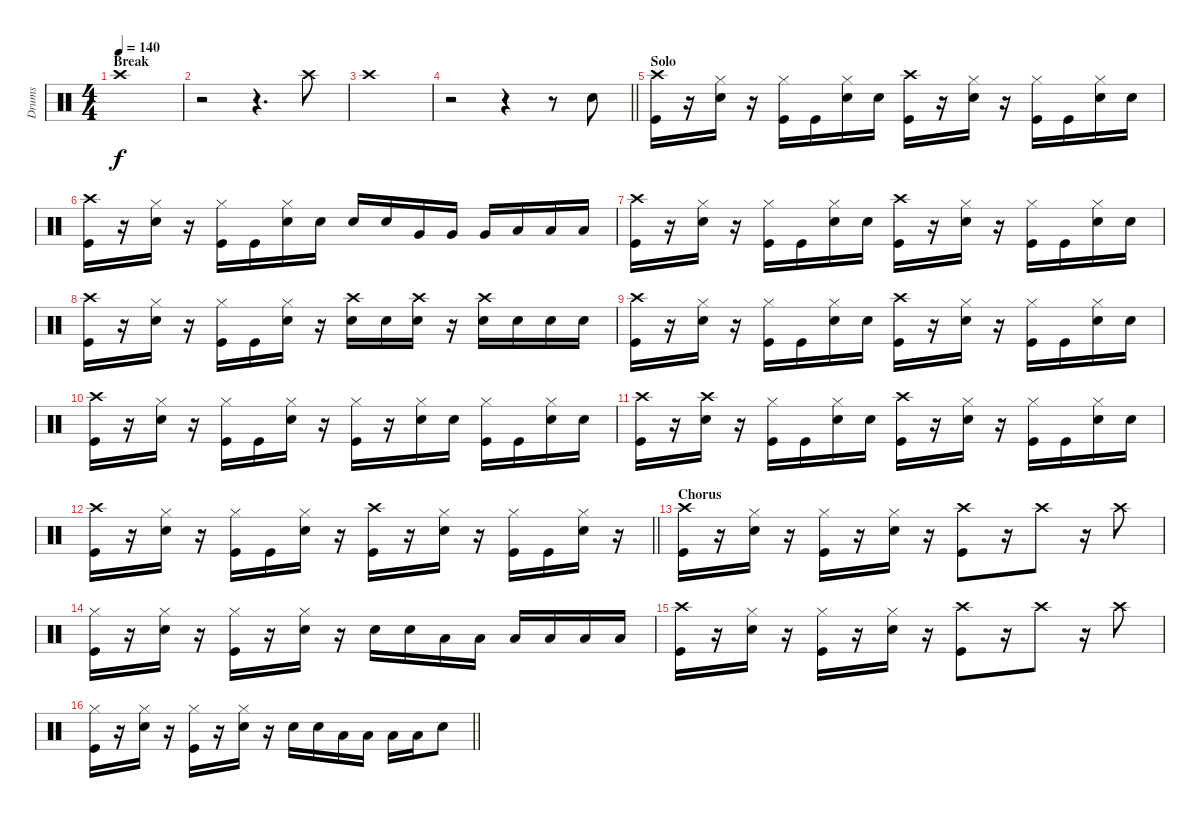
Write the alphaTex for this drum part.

\track ("Drums" "Drums") {instrument percussion}
\staff {score}
\articulation defaults
\ts (4 4)
\section ("" "Break")
\tempo 140
\clef neutral
\ks c "Crash high (hit)".1{dy f}
|
r.2 r.4{d} "Crash high (hit)".8 |
"Crash high (hit)".1 |
\barLineRight lightlight
r.2 r.4 r.8 "Snare (hit) 2".8 |
\section ("" "Solo")
("Crash high (hit)" "Kick (hit)").16 r.16 ("Hi-Hat (closed)" "Snare (hit) 2").16 r.16 ("Hi-Hat (closed)" "Kick (hit)").16 "Kick (hit)".16 ("Hi-Hat (closed)" "Snare (hit) 2").16 "Snare (hit) 2".16 ("Crash high (hit)" "Kick (hit)").16 r.16 ("Hi-Hat (closed)" "Snare (hit) 2").16 r.16 ("Hi-Hat (closed)" "Kick (hit)").16 "Kick (hit)".16 ("Hi-Hat (closed)" "Snare (hit) 2").16 "Snare (hit) 2".16 |
("Crash high (hit)" "Kick (hit)").16 r.16 ("Hi-Hat (closed)" "Snare (hit) 2").16 r.16 ("Hi-Hat (closed)" "Kick (hit)").16 "Kick (hit)".16 ("Hi-Hat (closed)" "Snare (hit) 2").16 "Snare (hit) 2".16 "Snare (hit) 2".16 "Snare (hit) 2".16 "Very Low Tom (hit)".16 "Very Low Tom (hit)".16 "Very Low Tom (hit)".16 "Low Tom (hit)".16 "Low Tom (hit)".16 "Low Tom (hit)".16 |
("Crash high (hit)" "Kick (hit)").16 r.16 ("Hi-Hat (closed)" "Snare (hit) 2").16 r.16 ("Hi-Hat (closed)" "Kick (hit)").16 "Kick (hit)".16 ("Hi-Hat (closed)" "Snare (hit) 2").16 "Snare (hit) 2".16 ("Crash high (hit)" "Kick (hit)").16 r.16 ("Hi-Hat (closed)" "Snare (hit) 2").16 r.16 ("Hi-Hat (closed)" "Kick (hit)").16 "Kick (hit)".16 ("Hi-Hat (closed)" "Snare (hit) 2").16 "Snare (hit) 2".16 |
("Crash high (hit)" "Kick (hit)").16 r.16 ("Hi-Hat (closed)" "Snare (hit) 2").16 r.16 ("Hi-Hat (closed)" "Kick (hit)").16 "Kick (hit)".16 ("Hi-Hat (closed)" "Snare (hit) 2").16 r.16 ("Crash high (hit)" "Snare (hit) 2").16 "Snare (hit) 2".16 ("Crash high (hit)" "Snare (hit) 2").16 r.16 ("Crash high (hit)" "Snare (hit) 2").16 "Snare (hit) 2".16 "Snare (hit) 2".16 "Snare (hit) 2".16 |
("Crash high (hit)" "Kick (hit)").16 r.16 ("Hi-Hat (closed)" "Snare (hit) 2").16 r.16 ("Hi-Hat (closed)" "Kick (hit)").16 "Kick (hit)".16 ("Hi-Hat (closed)" "Snare (hit) 2").16 "Snare (hit) 2".16 ("Crash high (hit)" "Kick (hit)").16 r.16 ("Hi-Hat (closed)" "Snare (hit) 2").16 r.16 ("Hi-Hat (closed)" "Kick (hit)").16 "Kick (hit)".16 ("Hi-Hat (closed)" "Snare (hit) 2").16 "Snare (hit) 2".16 |
("Crash high (hit)" "Kick (hit)").16 r.16 ("Hi-Hat (closed)" "Snare (hit) 2").16 r.16 ("Hi-Hat (closed)" "Kick (hit)").16 "Kick (hit)".16 ("Hi-Hat (closed)" "Snare (hit) 2").16 r.16 ("Hi-Hat (closed)" "Kick (hit)").16 r.16 ("Hi-Hat (closed)" "Snare (hit) 2").16 "Snare (hit) 2".16 ("Hi-Hat (closed)" "Kick (hit)").16 "Kick (hit)".16 ("Hi-Hat (closed)" "Snare (hit) 2").16 "Snare (hit) 2".16 |
("Crash high (hit)" "Kick (hit)").16 r.16 ("Crash high (hit)" "Snare (hit) 2").16 r.16 ("Hi-Hat (closed)" "Kick (hit)").16 "Kick (hit)".16 ("Hi-Hat (closed)" "Snare (hit) 2").16 "Snare (hit) 2".16 ("Crash high (hit)" "Kick (hit)").16 r.16 ("Hi-Hat (closed)" "Snare (hit) 2").16 r.16 ("Hi-Hat (closed)" "Kick (hit)").16 "Kick (hit)".16 ("Hi-Hat (closed)" "Snare (hit) 2").16 "Snare (hit) 2".16 |
\barLineRight lightlight
("Crash high (hit)" "Kick (hit)").16 r.16 ("Hi-Hat (closed)" "Snare (hit) 2").16 r.16 ("Hi-Hat (closed)" "Kick (hit)").16 "Kick (hit)".16 ("Hi-Hat (closed)" "Snare (hit) 2").16 r.16 ("Crash high (hit)" "Kick (hit)").16 r.16 ("Hi-Hat (closed)" "Snare (hit) 2").16 r.16 ("Hi-Hat (closed)" "Kick (hit)").16 "Kick (hit)".16 ("Hi-Hat (closed)" "Snare (hit) 2").16 r.16 |
\section ("" "Chorus")
("Crash high (hit)" "Kick (hit)").16 r.16 ("Hi-Hat (closed)" "Snare (hit) 2").16 r.16 ("Hi-Hat (closed)" "Kick (hit)").16 r.16 ("Hi-Hat (closed)" "Snare (hit) 2").16 r.16 ("Crash high (hit)" "Kick (hit)").8 r.16 "Crash high (hit)".8 r.16 "Crash high (hit)".8 |
("Hi-Hat (closed)" "Kick (hit)").16 r.16 ("Hi-Hat (closed)" "Snare (hit) 2").16 r.16 ("Hi-Hat (closed)" "Kick (hit)").16 r.16 ("Hi-Hat (closed)" "Snare (hit) 2").16 r.16 "Snare (hit) 2".16 "Snare (hit) 2".16 "Low Tom (hit)".16 "Low Tom (hit)".16 "Low Tom (hit)".16 "Low Tom (hit)".16 "Low Tom (hit)".16 "Low Tom (hit)".16 |
("Crash high (hit)" "Kick (hit)").16 r.16 ("Hi-Hat (closed)" "Snare (hit) 2").16 r.16 ("Hi-Hat (closed)" "Kick (hit)").16 r.16 ("Hi-Hat (closed)" "Snare (hit) 2").16 r.16 ("Crash high (hit)" "Kick (hit)").8 r.16 "Crash high (hit)".8 r.16 "Crash high (hit)".8 |
\barLineRight lightlight
("Hi-Hat (closed)" "Kick (hit)").16 r.16 ("Hi-Hat (closed)" "Snare (hit) 2").16 r.16 ("Hi-Hat (closed)" "Kick (hit)").16 r.16 ("Hi-Hat (closed)" "Snare (hit) 2").16 r.16 "Snare (hit) 2".16 "Snare (hit) 2".16 "Low Tom (hit)".16 "Low Tom (hit)".16 "Low Tom (hit)".16 "Low Tom (hit)".16 "Snare (hit) 2".8
